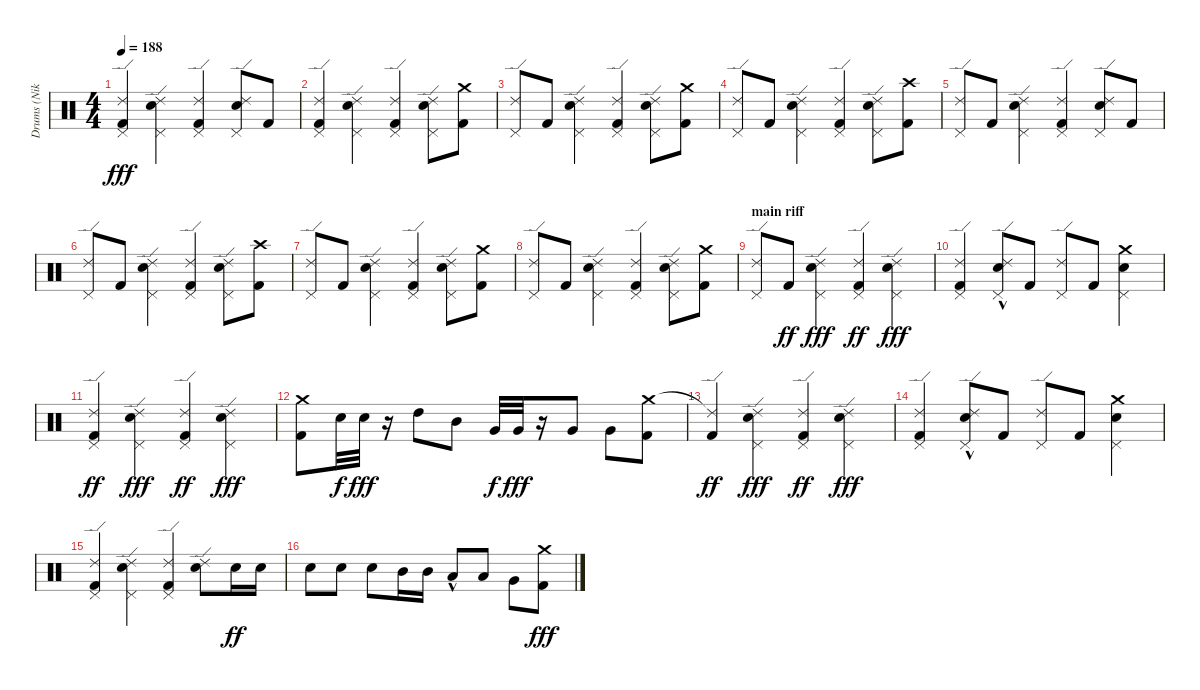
\track ("Drums (Niko)" "Drums (Nik") {instrument percussion}
\staff {score}
\articulation defaults
\ts (4 4)
\tempo 188
\clef neutral
\ks c
("Ride (edge) 2" "Pedal Hi-Hat (hit)" "Kick (hit) 2").4{dy fff} ("Ride (edge) 2" "Electric Snare (hit)" "Pedal Hi-Hat (hit)").4 ("Ride (edge) 2" "Pedal Hi-Hat (hit)" "Kick (hit) 2").4 ("Ride (edge) 2" "Electric Snare (hit)" "Pedal Hi-Hat (hit)").8 "Kick (hit) 2".8 |
("Ride (edge) 2" "Pedal Hi-Hat (hit)" "Kick (hit) 2").4 ("Ride (edge) 2" "Electric Snare (hit)" "Pedal Hi-Hat (hit)").4 ("Ride (edge) 2" "Pedal Hi-Hat (hit)" "Kick (hit) 2").4 ("Ride (edge) 2" "Electric Snare (hit)" "Pedal Hi-Hat (hit)").8 ("Crash medium (hit)" "Kick (hit) 2").8 |
("Ride (edge) 2" "Pedal Hi-Hat (hit)").8 "Kick (hit) 2".8 ("Ride (edge) 2" "Electric Snare (hit)" "Pedal Hi-Hat (hit)").4 ("Ride (edge) 2" "Pedal Hi-Hat (hit)" "Kick (hit) 2").4 ("Ride (edge) 2" "Electric Snare (hit)" "Pedal Hi-Hat (hit)").8 ("Crash medium (hit)" "Kick (hit) 2").8 |
("Ride (edge) 2" "Pedal Hi-Hat (hit)").8 "Kick (hit) 2".8 ("Ride (edge) 2" "Electric Snare (hit)" "Pedal Hi-Hat (hit)").4 ("Ride (edge) 2" "Pedal Hi-Hat (hit)" "Kick (hit) 2").4 ("Ride (edge) 2" "Electric Snare (hit)" "Pedal Hi-Hat (hit)").8 ("Crash high (hit)" "Kick (hit) 2").8 |
("Ride (edge) 2" "Pedal Hi-Hat (hit)").8 "Kick (hit) 2".8 ("Ride (edge) 2" "Electric Snare (hit)" "Pedal Hi-Hat (hit)").4 ("Ride (edge) 2" "Pedal Hi-Hat (hit)" "Kick (hit) 2").4 ("Ride (edge) 2" "Electric Snare (hit)" "Pedal Hi-Hat (hit)").8 "Kick (hit) 2".8 |
("Ride (edge) 2" "Pedal Hi-Hat (hit)").8 "Kick (hit) 2".8 ("Ride (edge) 2" "Electric Snare (hit)" "Pedal Hi-Hat (hit)").4 ("Ride (edge) 2" "Pedal Hi-Hat (hit)" "Kick (hit) 2").4 ("Ride (edge) 2" "Electric Snare (hit)" "Pedal Hi-Hat (hit)").8 ("Crash high (hit)" "Kick (hit) 2").8 |
("Ride (edge) 2" "Pedal Hi-Hat (hit)").8 "Kick (hit) 2".8 ("Ride (edge) 2" "Electric Snare (hit)" "Pedal Hi-Hat (hit)").4 ("Ride (edge) 2" "Pedal Hi-Hat (hit)" "Kick (hit) 2").4 ("Ride (edge) 2" "Electric Snare (hit)" "Pedal Hi-Hat (hit)").8 ("Crash medium (hit)" "Kick (hit) 2").8 |
("Ride (edge) 2" "Pedal Hi-Hat (hit)").8 "Kick (hit) 2".8 ("Ride (edge) 2" "Electric Snare (hit)" "Pedal Hi-Hat (hit)").4 ("Ride (edge) 2" "Pedal Hi-Hat (hit)" "Kick (hit) 2").4 ("Ride (edge) 2" "Electric Snare (hit)" "Pedal Hi-Hat (hit)").8 ("Crash medium (hit)" "Kick (hit) 2").8 |
\section ("" "main riff")
("Ride (edge) 2" "Pedal Hi-Hat (hit)").8 "Kick (hit) 2".8{dy ff} ("Ride (edge) 2" "Electric Snare (hit)" "Pedal Hi-Hat (hit)").4{dy fff} ("Ride (edge) 2" "Pedal Hi-Hat (hit)" "Kick (hit) 2").4{dy ff} ("Ride (edge) 2" "Electric Snare (hit)" "Pedal Hi-Hat (hit)").4{dy fff} |
("Ride (edge) 2" "Pedal Hi-Hat (hit)" "Kick (hit) 2").4 ("Ride (edge) 2" "Electric Snare (hit)"{hac} "Pedal Hi-Hat (hit)").8 "Kick (hit) 2".8 ("Ride (edge) 2" "Pedal Hi-Hat (hit)").8 "Kick (hit) 2".8 ("Crash medium (hit)" "Electric Snare (hit)" "Pedal Hi-Hat (hit)").4 |
("Ride (edge) 2" "Pedal Hi-Hat (hit)" "Kick (hit) 2").4{dy ff} ("Ride (edge) 2" "Electric Snare (hit)" "Pedal Hi-Hat (hit)").4{dy fff} ("Ride (edge) 2" "Pedal Hi-Hat (hit)" "Kick (hit) 2").4{dy ff} ("Ride (edge) 2" "Electric Snare (hit)" "Pedal Hi-Hat (hit)").4{dy fff} |
("Crash medium (hit)" "Kick (hit) 2").8 "Electric Snare (hit)".32{dy f} "Electric Snare (hit)".32{dy fff} r.16 "High Tom (hit)".8 "Mid Tom (hit)".8 "Very Low Tom (hit)".32{dy f} "Very Low Tom (hit)".32{dy fff} r.16 "Very Low Tom (hit)".8 "Very Low Tom (hit)".8 ("Crash medium (hit)" "Kick (hit) 2").8 |
("Ride (edge) 2"{t} "Kick (hit) 2").4{dy ff} ("Ride (edge) 2" "Electric Snare (hit)" "Pedal Hi-Hat (hit)").4{dy fff} ("Ride (edge) 2" "Pedal Hi-Hat (hit)" "Kick (hit) 2").4{dy ff} ("Ride (edge) 2" "Electric Snare (hit)" "Pedal Hi-Hat (hit)").4{dy fff} |
("Ride (edge) 2" "Pedal Hi-Hat (hit)" "Kick (hit) 2").4 ("Ride (edge) 2" "Electric Snare (hit)"{hac} "Pedal Hi-Hat (hit)").8 "Kick (hit) 2".8 ("Ride (edge) 2" "Pedal Hi-Hat (hit)").8 "Kick (hit) 2".8 ("Crash medium (hit)" "Electric Snare (hit)" "Pedal Hi-Hat (hit)").4 |
("Ride (edge) 2" "Pedal Hi-Hat (hit)" "Kick (hit) 2").4 ("Ride (edge) 2" "Electric Snare (hit)" "Pedal Hi-Hat (hit)").4 ("Ride (edge) 2" "Pedal Hi-Hat (hit)" "Kick (hit) 2").4 ("Ride (edge) 2" "Electric Snare (hit)").8 "Electric Snare (hit)".16{dy ff} "Electric Snare (hit)".16 |
"Electric Snare (hit)".8 "Electric Snare (hit)".8 "Electric Snare (hit)".8 "Mid Tom (hit)".16 "Mid Tom (hit)".16 "Low Tom (hit)"{hac}.8 "Low Tom (hit)".8 "Very Low Tom (hit)".8 ("Crash medium (hit)" "Kick (hit) 2").8{dy fff}
